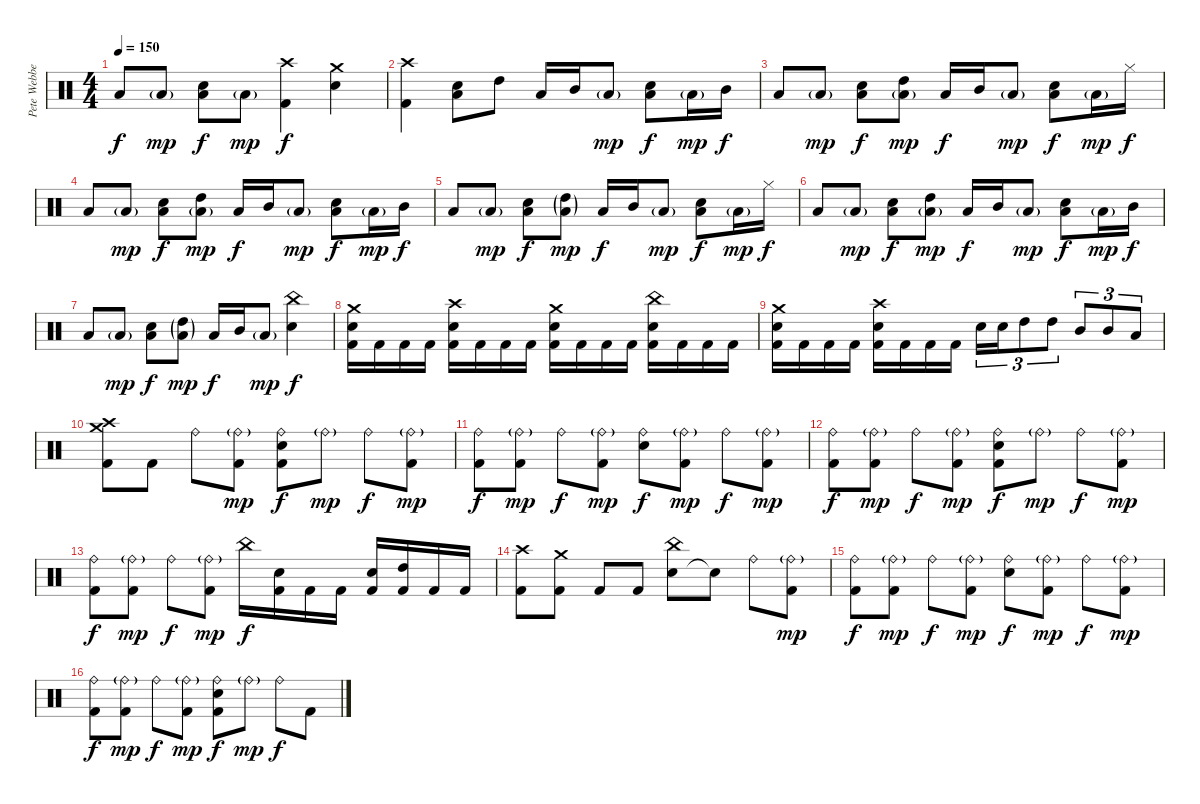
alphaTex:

\track ("Pete Webber" "Pete Webbe") {instrument percussion}
\staff {score}
\articulation defaults
\ts (4 4)
\tempo 150
\clef neutral
\ks c "Low Floor Tom (hit)".8{dy f} "Low Floor Tom (hit)"{g}.8{dy mp}
("Electric Snare (hit)" "Low Floor Tom (hit)").8{dy f} "Low Floor Tom (hit)"{g}.8{dy mp} ("Kick (hit) 2" "Crash high (hit)").4{dy f} ("Electric Snare (hit)" "Crash medium (hit)").4 |
("Kick (hit) 2" "Crash high (hit)").4 ("Electric Snare (hit)" "Low Floor Tom (hit)").8 "High Tom (hit)".8 "Low Floor Tom (hit)".16 "Mid Tom (hit)".16 "Low Floor Tom (hit)"{g}.8{dy mp} ("Electric Snare (hit)" "Low Floor Tom (hit)").8{dy f} "Low Floor Tom (hit)"{g}.16{dy mp} "Mid Tom (hit)".16{dy f} |
"Low Floor Tom (hit)".8 "Low Floor Tom (hit)"{g}.8{dy mp} ("Electric Snare (hit)" "Low Floor Tom (hit)").8{dy f} ("High Tom (hit)" "Low Floor Tom (hit)"{g}).8{dy mp} "Low Floor Tom (hit)".16{dy f} "Mid Tom (hit)".16 "Low Floor Tom (hit)"{g}.8{dy mp} ("Electric Snare (hit)" "Low Floor Tom (hit)").8{dy f} "Low Floor Tom (hit)"{g}.16{dy mp} "Hi-Hat (closed)".16{dy f} |
"Low Floor Tom (hit)".8 "Low Floor Tom (hit)"{g}.8{dy mp} ("Electric Snare (hit)" "Low Floor Tom (hit)").8{dy f} ("High Tom (hit)" "Low Floor Tom (hit)"{g}).8{dy mp} "Low Floor Tom (hit)".16{dy f} "Mid Tom (hit)".16 "Low Floor Tom (hit)"{g}.8{dy mp} ("Electric Snare (hit)" "Low Floor Tom (hit)").8{dy f} "Low Floor Tom (hit)"{g}.16{dy mp} "Mid Tom (hit)".16{dy f} |
"Low Floor Tom (hit)".8 "Low Floor Tom (hit)"{g}.8{dy mp} ("Electric Snare (hit)" "Low Floor Tom (hit)").8{dy f} ("High Tom (hit)"{g} "Low Floor Tom (hit)"{g}).8{dy mp} "Low Floor Tom (hit)".16{dy f} "Mid Tom (hit)".16 "Low Floor Tom (hit)"{g}.8{dy mp} ("Electric Snare (hit)" "Low Floor Tom (hit)").8{dy f} "Low Floor Tom (hit)"{g}.16{dy mp} "Hi-Hat (closed)".16{dy f} |
"Low Floor Tom (hit)".8 "Low Floor Tom (hit)"{g}.8{dy mp} ("Electric Snare (hit)" "Low Floor Tom (hit)").8{dy f} ("High Tom (hit)" "Low Floor Tom (hit)"{g}).8{dy mp} "Low Floor Tom (hit)".16{dy f} "Mid Tom (hit)".16 "Low Floor Tom (hit)"{g}.8{dy mp} ("Electric Snare (hit)" "Low Floor Tom (hit)").8{dy f} "Low Floor Tom (hit)"{g}.16{dy mp} "Mid Tom (hit)".16{dy f} |
"Low Floor Tom (hit)".8 "Low Floor Tom (hit)"{g}.8{dy mp} ("Electric Snare (hit)" "Low Floor Tom (hit)").8{dy f} ("High Tom (hit)"{g} "Low Floor Tom (hit)"{g}).8{dy mp} "Low Floor Tom (hit)".16{dy f} "Mid Tom (hit)".16 "Low Floor Tom (hit)"{g}.8{dy mp} ("Electric Snare (hit)" "China (hit)").4{dy f} |
("Electric Snare (hit)" "Kick (hit) 2" "Crash medium (hit)").16 "Kick (hit) 2".16 "Kick (hit) 2".16 "Kick (hit) 2".16 ("Electric Snare (hit)" "Kick (hit) 2" "Crash high (hit)").16 "Kick (hit) 2".16 "Kick (hit) 2".16 "Kick (hit) 2".16 ("Electric Snare (hit)" "Kick (hit) 2" "Crash medium (hit)").16 "Kick (hit) 2".16 "Kick (hit) 2".16 "Kick (hit) 2".16 ("Electric Snare (hit)" "Kick (hit) 2" "China (hit)").16 "Kick (hit) 2".16 "Kick (hit) 2".16 "Kick (hit) 2".16 |
("Electric Snare (hit)" "Kick (hit) 2" "Crash medium (hit)").16 "Kick (hit) 2".16 "Kick (hit) 2".16 "Kick (hit) 2".16 ("Electric Snare (hit)" "Kick (hit) 2" "Crash high (hit)").16 "Kick (hit) 2".16 "Kick (hit) 2".16 "Kick (hit) 2".16 "Electric Snare (hit)".16{tu (3 2)} "Electric Snare (hit)".16{tu (3 2)} "High Tom (hit)".8{tu (3 2)} "High Tom (hit)".8{tu (3 2)} "Mid Tom (hit)".8{tu (3 2)} "Mid Tom (hit)".8{tu (3 2)} "Low Floor Tom (hit)".8{tu (3 2)} |
("Kick (hit) 2" "Crash high (hit)" "Crash medium (hit)").8 "Kick (hit) 2".8 "Ride (bell)".8 ("Ride (bell)"{g} "Kick (hit) 2").8{dy mp} ("Ride (bell)" "Electric Snare (hit)" "Kick (hit) 2").8{dy f} "Ride (bell)"{g}.8{dy mp} "Ride (bell)".8{dy f} ("Ride (bell)"{g} "Kick (hit) 2").8{dy mp} |
("Ride (bell)" "Kick (hit) 2").8{dy f} ("Ride (bell)"{g} "Kick (hit) 2").8{dy mp} "Ride (bell)".8{dy f} ("Ride (bell)"{g} "Kick (hit) 2").8{dy mp} ("Ride (bell)" "Electric Snare (hit)").8{dy f} ("Ride (bell)"{g} "Kick (hit) 2").8{dy mp} "Ride (bell)".8{dy f} ("Ride (bell)"{g} "Kick (hit) 2").8{dy mp} |
("Ride (bell)" "Kick (hit) 2").8{dy f} ("Ride (bell)"{g} "Kick (hit) 2").8{dy mp} "Ride (bell)".8{dy f} ("Ride (bell)"{g} "Kick (hit) 2").8{dy mp} ("Ride (bell)" "Electric Snare (hit)" "Kick (hit) 2").8{dy f} "Ride (bell)"{g}.8{dy mp} "Ride (bell)".8{dy f} ("Ride (bell)"{g} "Kick (hit) 2").8{dy mp} |
("Ride (bell)" "Kick (hit) 2").8{dy f} ("Ride (bell)"{g} "Kick (hit) 2").8{dy mp} "Ride (bell)".8{dy f} ("Ride (bell)"{g} "Kick (hit) 2").8{dy mp} "China (hit)".16{dy f} ("Electric Snare (hit)" "Kick (hit) 2").16 "Kick (hit) 2".16 "Kick (hit) 2".16 ("Electric Snare (hit)" "Kick (hit) 2").16 ("Kick (hit) 2" "High Tom (hit)").16 "Kick (hit) 2".16 "Kick (hit) 2".16 |
("Kick (hit) 2" "Crash high (hit)").8 ("Kick (hit) 2" "Crash medium (hit)").8 "Kick (hit) 2".8 "Kick (hit) 2".8 ("Electric Snare (hit)" "China (hit)").8 "Snare (hit)"{t}.8 "Ride (bell)".8 ("Ride (bell)"{g} "Kick (hit) 2").8{dy mp} |
("Ride (bell)" "Kick (hit) 2").8{dy f} ("Ride (bell)"{g} "Kick (hit) 2").8{dy mp} "Ride (bell)".8{dy f} ("Ride (bell)"{g} "Kick (hit) 2").8{dy mp} ("Ride (bell)" "Electric Snare (hit)").8{dy f} ("Ride (bell)"{g} "Kick (hit) 2").8{dy mp} "Ride (bell)".8{dy f} ("Ride (bell)"{g} "Kick (hit) 2").8{dy mp} |
("Ride (bell)" "Kick (hit) 2").8{dy f} ("Ride (bell)"{g} "Kick (hit) 2").8{dy mp} "Ride (bell)".8{dy f} ("Ride (bell)"{g} "Kick (hit) 2").8{dy mp} ("Ride (bell)" "Electric Snare (hit)" "Kick (hit) 2").8{dy f} "Ride (bell)"{g}.8{dy mp} "Ride (bell)".8{dy f} "Kick (hit) 2".8
